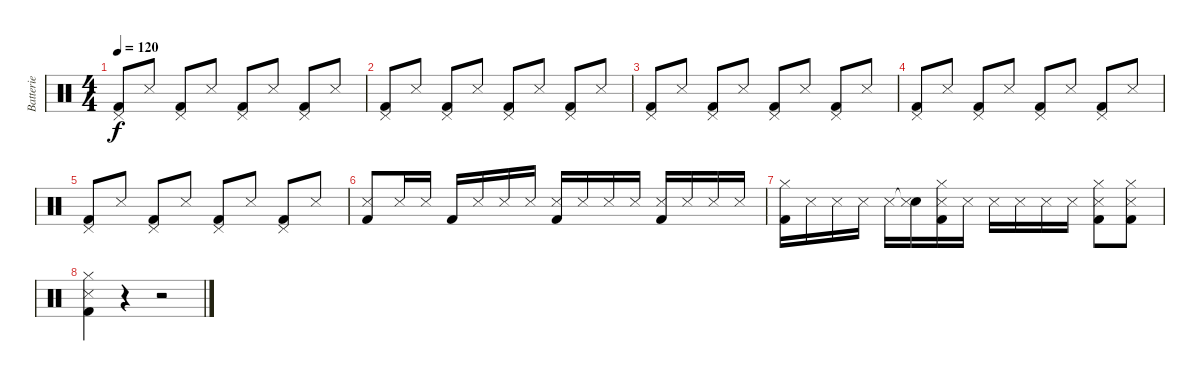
\track ("Batterie" "Batterie") {instrument percussion}
\staff {score}
\articulation defaults
\ts (4 4)
\tempo 120
\clef neutral
\ks c
("Pedal Hi-Hat (hit)" "Kick (hit) 2").8{dy f} "Snare (side stick) 3".8 ("Pedal Hi-Hat (hit)" "Kick (hit) 2").8 "Snare (side stick) 3".8 ("Pedal Hi-Hat (hit)" "Kick (hit) 2").8 "Snare (side stick) 3".8 ("Pedal Hi-Hat (hit)" "Kick (hit) 2").8 "Snare (side stick) 3".8 |
("Pedal Hi-Hat (hit)" "Kick (hit) 2").8 "Snare (side stick) 3".8 ("Pedal Hi-Hat (hit)" "Kick (hit) 2").8 "Snare (side stick) 3".8 ("Pedal Hi-Hat (hit)" "Kick (hit) 2").8 "Snare (side stick) 3".8 ("Pedal Hi-Hat (hit)" "Kick (hit) 2").8 "Snare (side stick) 3".8 |
("Pedal Hi-Hat (hit)" "Kick (hit) 2").8 "Snare (side stick) 3".8 ("Pedal Hi-Hat (hit)" "Kick (hit) 2").8 "Snare (side stick) 3".8 ("Pedal Hi-Hat (hit)" "Kick (hit) 2").8 "Snare (side stick) 3".8 ("Pedal Hi-Hat (hit)" "Kick (hit) 2").8 "Snare (side stick) 3".8 |
("Pedal Hi-Hat (hit)" "Kick (hit) 2").8 "Snare (side stick) 3".8 ("Pedal Hi-Hat (hit)" "Kick (hit) 2").8 "Snare (side stick) 3".8 ("Pedal Hi-Hat (hit)" "Kick (hit) 2").8 "Snare (side stick) 3".8 ("Pedal Hi-Hat (hit)" "Kick (hit) 2").8 "Snare (side stick) 3".8 |
("Pedal Hi-Hat (hit)" "Kick (hit) 2").8 "Snare (side stick) 3".8 ("Pedal Hi-Hat (hit)" "Kick (hit) 2").8 "Snare (side stick) 3".8 ("Pedal Hi-Hat (hit)" "Kick (hit) 2").8 "Snare (side stick) 3".8 ("Pedal Hi-Hat (hit)" "Kick (hit) 2").8 "Snare (side stick) 3".8 |
("Snare (side stick) 3" "Kick (hit) 2").8 "Snare (side stick) 3".16 "Snare (side stick) 3".16 "Kick (hit) 2".16 "Snare (side stick) 3".16 "Snare (side stick) 3".16 "Snare (side stick) 3".16 ("Snare (side stick) 3" "Kick (hit) 2").16 "Snare (side stick) 3".16 "Snare (side stick) 3".16 "Snare (side stick) 3".16 ("Snare (side stick) 3" "Kick (hit) 2").16 "Snare (side stick) 3".16 "Snare (side stick) 3".16 "Snare (side stick) 3".16 |
("Hi-Hat (closed)" "Kick (hit) 2").16 "Snare (side stick) 3".16 "Snare (side stick) 3".16 "Snare (side stick) 3".16 "Snare (side stick) 3".16 ("Snare (hit)"{t} "Snare (side stick) 3").16 ("Hi-Hat (closed)" "Snare (side stick) 3" "Kick (hit) 2").16 "Snare (side stick) 3".16 "Snare (side stick) 3".16 "Snare (side stick) 3".16 "Snare (side stick) 3".16 "Snare (side stick) 3".16 ("Hi-Hat (closed)" "Snare (side stick) 3" "Kick (hit) 2").8 ("Hi-Hat (closed)" "Snare (side stick) 3" "Kick (hit) 2").8 |
("Hi-Hat (closed)" "Snare (side stick) 3" "Kick (hit) 2").4 r.4 r.2
